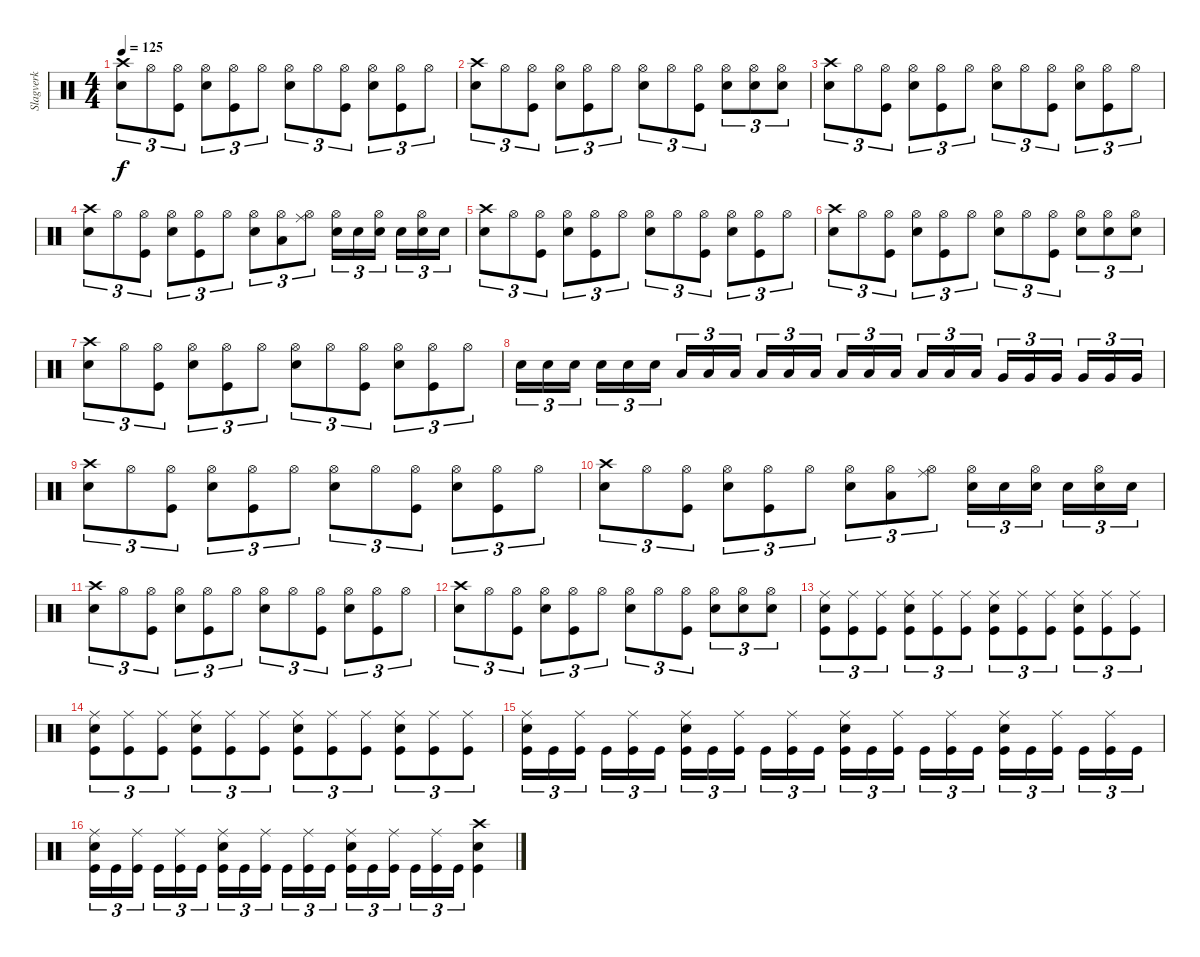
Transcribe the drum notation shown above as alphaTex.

\track ("Slagverk" "Slagverk") {instrument percussion}
\staff {score}
\articulation defaults
\ts (4 4)
\tempo 125
\clef neutral
\ks c
("Crash high (hit)" "Snare (hit) 2").8{tu (3 2) dy f} "Hi-Hat (open)".8{tu (3 2)} ("Hi-Hat (open)" "Kick (hit)").8{tu (3 2)} ("Hi-Hat (open)" "Snare (hit) 2").8{tu (3 2)} ("Hi-Hat (open)" "Kick (hit)").8{tu (3 2)} "Hi-Hat (open)".8{tu (3 2)} ("Hi-Hat (open)" "Snare (hit) 2").8{tu (3 2)} "Hi-Hat (open)".8{tu (3 2)} ("Hi-Hat (open)" "Kick (hit)").8{tu (3 2)} ("Hi-Hat (open)" "Snare (hit) 2").8{tu (3 2)} ("Hi-Hat (open)" "Kick (hit)").8{tu (3 2)} "Hi-Hat (open)".8{tu (3 2)} |
("Crash high (hit)" "Snare (hit) 2").8{tu (3 2)} "Hi-Hat (open)".8{tu (3 2)} ("Hi-Hat (open)" "Kick (hit)").8{tu (3 2)} ("Hi-Hat (open)" "Snare (hit) 2").8{tu (3 2)} ("Hi-Hat (open)" "Kick (hit)").8{tu (3 2)} "Hi-Hat (open)".8{tu (3 2)} ("Hi-Hat (open)" "Snare (hit) 2").8{tu (3 2)} "Hi-Hat (open)".8{tu (3 2)} ("Hi-Hat (open)" "Kick (hit)").8{tu (3 2)} ("Hi-Hat (open)" "Snare (hit) 2").8{tu (3 2)} ("Hi-Hat (open)" "Snare (hit) 2").8{tu (3 2)} ("Hi-Hat (open)" "Snare (hit) 2").8{tu (3 2)} |
("Crash high (hit)" "Snare (hit) 2").8{tu (3 2)} "Hi-Hat (open)".8{tu (3 2)} ("Hi-Hat (open)" "Kick (hit)").8{tu (3 2)} ("Hi-Hat (open)" "Snare (hit) 2").8{tu (3 2)} ("Hi-Hat (open)" "Kick (hit)").8{tu (3 2)} "Hi-Hat (open)".8{tu (3 2)} ("Hi-Hat (open)" "Snare (hit) 2").8{tu (3 2)} "Hi-Hat (open)".8{tu (3 2)} ("Hi-Hat (open)" "Kick (hit)").8{tu (3 2)} ("Hi-Hat (open)" "Snare (hit) 2").8{tu (3 2)} ("Hi-Hat (open)" "Kick (hit)").8{tu (3 2)} "Hi-Hat (open)".8{tu (3 2)} |
("Crash high (hit)" "Snare (hit) 2").8{tu (3 2)} "Hi-Hat (open)".8{tu (3 2)} ("Hi-Hat (open)" "Kick (hit)").8{tu (3 2)} ("Hi-Hat (open)" "Snare (hit) 2").8{tu (3 2)} ("Hi-Hat (open)" "Kick (hit)").8{tu (3 2)} "Hi-Hat (open)".8{tu (3 2)} ("Hi-Hat (open)" "Snare (hit) 2").8{tu (3 2)} ("Hi-Hat (open)" "Low Floor Tom (hit)").8{tu (3 2)} ("Hi-Hat (open)" "Ride (middle)").8{tu (3 2)} ("Hi-Hat (open)" "Snare (hit) 2").16{tu (3 2)} "Snare (hit) 2".16{tu (3 2)} ("Hi-Hat (open)" "Snare (hit) 2").16{tu (3 2) beam splitsecondary} "Snare (hit) 2".16{tu (3 2)} ("Hi-Hat (open)" "Snare (hit) 2").16{tu (3 2)} "Snare (hit) 2".16{tu (3 2)} |
("Crash high (hit)" "Snare (hit) 2").8{tu (3 2)} "Hi-Hat (open)".8{tu (3 2)} ("Hi-Hat (open)" "Kick (hit)").8{tu (3 2)} ("Hi-Hat (open)" "Snare (hit) 2").8{tu (3 2)} ("Hi-Hat (open)" "Kick (hit)").8{tu (3 2)} "Hi-Hat (open)".8{tu (3 2)} ("Hi-Hat (open)" "Snare (hit) 2").8{tu (3 2)} "Hi-Hat (open)".8{tu (3 2)} ("Hi-Hat (open)" "Kick (hit)").8{tu (3 2)} ("Hi-Hat (open)" "Snare (hit) 2").8{tu (3 2)} ("Hi-Hat (open)" "Kick (hit)").8{tu (3 2)} "Hi-Hat (open)".8{tu (3 2)} |
("Crash high (hit)" "Snare (hit) 2").8{tu (3 2)} "Hi-Hat (open)".8{tu (3 2)} ("Hi-Hat (open)" "Kick (hit)").8{tu (3 2)} ("Hi-Hat (open)" "Snare (hit) 2").8{tu (3 2)} ("Hi-Hat (open)" "Kick (hit)").8{tu (3 2)} "Hi-Hat (open)".8{tu (3 2)} ("Hi-Hat (open)" "Snare (hit) 2").8{tu (3 2)} "Hi-Hat (open)".8{tu (3 2)} ("Hi-Hat (open)" "Kick (hit)").8{tu (3 2)} ("Hi-Hat (open)" "Snare (hit) 2").8{tu (3 2)} ("Hi-Hat (open)" "Snare (hit) 2").8{tu (3 2)} ("Hi-Hat (open)" "Snare (hit) 2").8{tu (3 2)} |
("Crash high (hit)" "Snare (hit) 2").8{tu (3 2)} "Hi-Hat (open)".8{tu (3 2)} ("Hi-Hat (open)" "Kick (hit)").8{tu (3 2)} ("Hi-Hat (open)" "Snare (hit) 2").8{tu (3 2)} ("Hi-Hat (open)" "Kick (hit)").8{tu (3 2)} "Hi-Hat (open)".8{tu (3 2)} ("Hi-Hat (open)" "Snare (hit) 2").8{tu (3 2)} "Hi-Hat (open)".8{tu (3 2)} ("Hi-Hat (open)" "Kick (hit)").8{tu (3 2)} ("Hi-Hat (open)" "Snare (hit) 2").8{tu (3 2)} ("Hi-Hat (open)" "Kick (hit)").8{tu (3 2)} "Hi-Hat (open)".8{tu (3 2)} |
"Snare (hit) 2".16{tu (3 2)} "Snare (hit) 2".16{tu (3 2)} "Snare (hit) 2".16{tu (3 2) beam splitsecondary} "Snare (hit) 2".16{tu (3 2)} "Snare (hit) 2".16{tu (3 2)} "Snare (hit) 2".16{tu (3 2)} "Low Tom (hit)".16{tu (3 2)} "Low Tom (hit)".16{tu (3 2)} "Low Tom (hit)".16{tu (3 2) beam splitsecondary} "Low Tom (hit)".16{tu (3 2)} "Low Tom (hit)".16{tu (3 2)} "Low Tom (hit)".16{tu (3 2)} "Low Floor Tom (hit)".16{tu (3 2)} "Low Floor Tom (hit)".16{tu (3 2)} "Low Floor Tom (hit)".16{tu (3 2) beam splitsecondary} "Low Floor Tom (hit)".16{tu (3 2)} "Low Floor Tom (hit)".16{tu (3 2)} "Low Floor Tom (hit)".16{tu (3 2)} "Very Low Tom (hit)".16{tu (3 2)} "Very Low Tom (hit)".16{tu (3 2)} "Very Low Tom (hit)".16{tu (3 2) beam splitsecondary} "Very Low Tom (hit)".16{tu (3 2)} "Very Low Tom (hit)".16{tu (3 2)} "Very Low Tom (hit)".16{tu (3 2)} |
("Crash high (hit)" "Snare (hit) 2").8{tu (3 2)} "Hi-Hat (open)".8{tu (3 2)} ("Hi-Hat (open)" "Kick (hit)").8{tu (3 2)} ("Hi-Hat (open)" "Snare (hit) 2").8{tu (3 2)} ("Hi-Hat (open)" "Kick (hit)").8{tu (3 2)} "Hi-Hat (open)".8{tu (3 2)} ("Hi-Hat (open)" "Snare (hit) 2").8{tu (3 2)} "Hi-Hat (open)".8{tu (3 2)} ("Hi-Hat (open)" "Kick (hit)").8{tu (3 2)} ("Hi-Hat (open)" "Snare (hit) 2").8{tu (3 2)} ("Hi-Hat (open)" "Kick (hit)").8{tu (3 2)} "Hi-Hat (open)".8{tu (3 2)} |
("Crash high (hit)" "Snare (hit) 2").8{tu (3 2)} "Hi-Hat (open)".8{tu (3 2)} ("Hi-Hat (open)" "Kick (hit)").8{tu (3 2)} ("Hi-Hat (open)" "Snare (hit) 2").8{tu (3 2)} ("Hi-Hat (open)" "Kick (hit)").8{tu (3 2)} "Hi-Hat (open)".8{tu (3 2)} ("Hi-Hat (open)" "Snare (hit) 2").8{tu (3 2)} ("Hi-Hat (open)" "Low Floor Tom (hit)").8{tu (3 2)} ("Hi-Hat (open)" "Ride (middle)").8{tu (3 2)} ("Hi-Hat (open)" "Snare (hit) 2").16{tu (3 2)} "Snare (hit) 2".16{tu (3 2)} ("Hi-Hat (open)" "Snare (hit) 2").16{tu (3 2) beam splitsecondary} "Snare (hit) 2".16{tu (3 2)} ("Hi-Hat (open)" "Snare (hit) 2").16{tu (3 2)} "Snare (hit) 2".16{tu (3 2)} |
("Crash high (hit)" "Snare (hit) 2").8{tu (3 2)} "Hi-Hat (open)".8{tu (3 2)} ("Hi-Hat (open)" "Kick (hit)").8{tu (3 2)} ("Hi-Hat (open)" "Snare (hit) 2").8{tu (3 2)} ("Hi-Hat (open)" "Kick (hit)").8{tu (3 2)} "Hi-Hat (open)".8{tu (3 2)} ("Hi-Hat (open)" "Snare (hit) 2").8{tu (3 2)} "Hi-Hat (open)".8{tu (3 2)} ("Hi-Hat (open)" "Kick (hit)").8{tu (3 2)} ("Hi-Hat (open)" "Snare (hit) 2").8{tu (3 2)} ("Hi-Hat (open)" "Kick (hit)").8{tu (3 2)} "Hi-Hat (open)".8{tu (3 2)} |
("Crash high (hit)" "Snare (hit) 2").8{tu (3 2)} "Hi-Hat (open)".8{tu (3 2)} ("Hi-Hat (open)" "Kick (hit)").8{tu (3 2)} ("Hi-Hat (open)" "Snare (hit) 2").8{tu (3 2)} ("Hi-Hat (open)" "Kick (hit)").8{tu (3 2)} "Hi-Hat (open)".8{tu (3 2)} ("Hi-Hat (open)" "Snare (hit) 2").8{tu (3 2)} "Hi-Hat (open)".8{tu (3 2)} ("Hi-Hat (open)" "Kick (hit)").8{tu (3 2)} ("Hi-Hat (open)" "Snare (hit) 2").8{tu (3 2)} ("Hi-Hat (open)" "Snare (hit) 2").8{tu (3 2)} ("Hi-Hat (open)" "Snare (hit) 2").8{tu (3 2)} |
("Ride (middle)" "Snare (hit) 2" "Kick (hit)").8{tu (3 2)} ("Ride (middle)" "Kick (hit)").8{tu (3 2)} ("Ride (middle)" "Kick (hit)").8{tu (3 2)} ("Ride (middle)" "Snare (hit) 2" "Kick (hit)").8{tu (3 2)} ("Ride (middle)" "Kick (hit)").8{tu (3 2)} ("Ride (middle)" "Kick (hit)").8{tu (3 2)} ("Ride (middle)" "Snare (hit) 2" "Kick (hit)").8{tu (3 2)} ("Ride (middle)" "Kick (hit)").8{tu (3 2)} ("Ride (middle)" "Kick (hit)").8{tu (3 2)} ("Ride (middle)" "Snare (hit) 2" "Kick (hit)").8{tu (3 2)} ("Ride (middle)" "Kick (hit)").8{tu (3 2)} ("Ride (middle)" "Kick (hit)").8{tu (3 2)} |
("Ride (middle)" "Snare (hit) 2" "Kick (hit)").8{tu (3 2)} ("Ride (middle)" "Kick (hit)").8{tu (3 2)} ("Ride (middle)" "Kick (hit)").8{tu (3 2)} ("Ride (middle)" "Snare (hit) 2" "Kick (hit)").8{tu (3 2)} ("Ride (middle)" "Kick (hit)").8{tu (3 2)} ("Ride (middle)" "Kick (hit)").8{tu (3 2)} ("Ride (middle)" "Snare (hit) 2" "Kick (hit)").8{tu (3 2)} ("Ride (middle)" "Kick (hit)").8{tu (3 2)} ("Ride (middle)" "Kick (hit)").8{tu (3 2)} ("Ride (middle)" "Snare (hit) 2" "Kick (hit)").8{tu (3 2)} ("Ride (middle)" "Kick (hit)").8{tu (3 2)} ("Ride (middle)" "Kick (hit)").8{tu (3 2)} |
("Ride (middle)" "Snare (hit) 2" "Kick (hit)").16{tu (3 2)} "Kick (hit)".16{tu (3 2)} ("Ride (middle)" "Kick (hit)").16{tu (3 2) beam splitsecondary} "Kick (hit)".16{tu (3 2)} ("Ride (middle)" "Kick (hit)").16{tu (3 2)} "Kick (hit)".16{tu (3 2)} ("Ride (middle)" "Snare (hit) 2" "Kick (hit)").16{tu (3 2)} "Kick (hit)".16{tu (3 2)} ("Ride (middle)" "Kick (hit)").16{tu (3 2) beam splitsecondary} "Kick (hit)".16{tu (3 2)} ("Ride (middle)" "Kick (hit)").16{tu (3 2)} "Kick (hit)".16{tu (3 2)} ("Ride (middle)" "Snare (hit) 2" "Kick (hit)").16{tu (3 2)} "Kick (hit)".16{tu (3 2)} ("Ride (middle)" "Kick (hit)").16{tu (3 2) beam splitsecondary} "Kick (hit)".16{tu (3 2)} ("Ride (middle)" "Kick (hit)").16{tu (3 2)} "Kick (hit)".16{tu (3 2)} ("Ride (middle)" "Snare (hit) 2" "Kick (hit)").16{tu (3 2)} "Kick (hit)".16{tu (3 2)} ("Ride (middle)" "Kick (hit)").16{tu (3 2) beam splitsecondary} "Kick (hit)".16{tu (3 2)} ("Ride (middle)" "Kick (hit)").16{tu (3 2)} "Kick (hit)".16{tu (3 2)} |
("Ride (middle)" "Snare (hit) 2" "Kick (hit)").16{tu (3 2)} "Kick (hit)".16{tu (3 2)} ("Ride (middle)" "Kick (hit)").16{tu (3 2) beam splitsecondary} "Kick (hit)".16{tu (3 2)} ("Ride (middle)" "Kick (hit)").16{tu (3 2)} "Kick (hit)".16{tu (3 2)} ("Ride (middle)" "Snare (hit) 2" "Kick (hit)").16{tu (3 2)} "Kick (hit)".16{tu (3 2)} ("Ride (middle)" "Kick (hit)").16{tu (3 2) beam splitsecondary} "Kick (hit)".16{tu (3 2)} ("Ride (middle)" "Kick (hit)").16{tu (3 2)} "Kick (hit)".16{tu (3 2)} ("Ride (middle)" "Snare (hit) 2" "Kick (hit)").16{tu (3 2)} "Kick (hit)".16{tu (3 2)} ("Ride (middle)" "Kick (hit)").16{tu (3 2) beam splitsecondary} "Kick (hit)".16{tu (3 2)} ("Ride (middle)" "Kick (hit)").16{tu (3 2)} "Kick (hit)".16{tu (3 2)} ("Crash high (hit)" "Snare (hit) 2" "Kick (hit)").4
